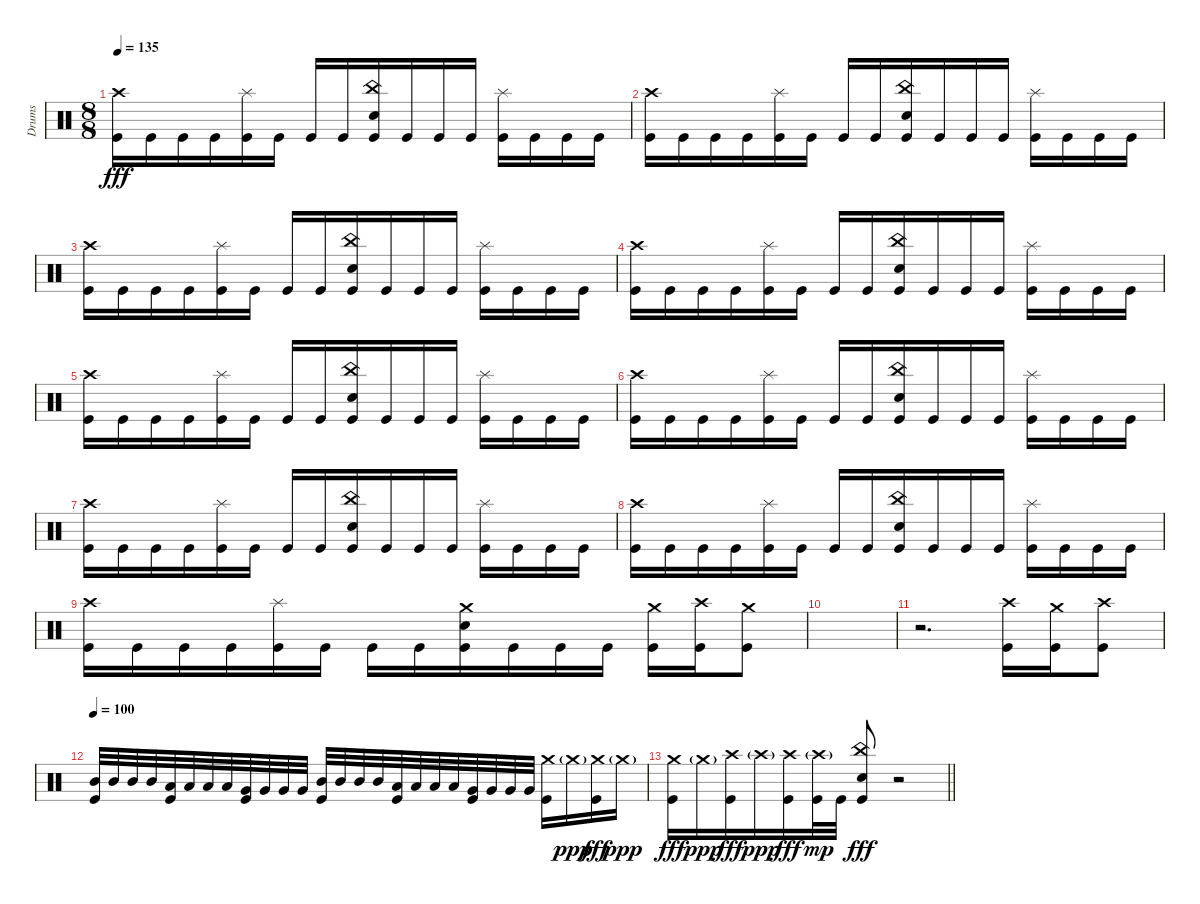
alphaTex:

\track ("Drums" "Drums") {instrument percussion}
\staff
\articulation defaults
\ts (8 8)
\tempo 135
\clef neutral
\ks c
("Crash high (hit)" "Kick (hit)").16{dy fff} "Kick (hit)".16 "Kick (hit)".16 "Kick (hit)".16 ("Splash (hit)" "Kick (hit)").16 "Kick (hit)".16 "Kick (hit)".16 "Kick (hit)".16 ("China (hit)" "Snare (hit) 2" "Kick (hit)").16 "Kick (hit)".16 "Kick (hit)".16 "Kick (hit)".16 ("Splash (hit)" "Kick (hit)").16 "Kick (hit)".16 "Kick (hit)".16 "Kick (hit)".16 |
("Crash high (hit)" "Kick (hit)").16 "Kick (hit)".16 "Kick (hit)".16 "Kick (hit)".16 ("Splash (hit)" "Kick (hit)").16 "Kick (hit)".16 "Kick (hit)".16 "Kick (hit)".16 ("China (hit)" "Snare (hit) 2" "Kick (hit)").16 "Kick (hit)".16 "Kick (hit)".16 "Kick (hit)".16 ("Splash (hit)" "Kick (hit)").16 "Kick (hit)".16 "Kick (hit)".16 "Kick (hit)".16 |
("Crash high (hit)" "Kick (hit)").16 "Kick (hit)".16 "Kick (hit)".16 "Kick (hit)".16 ("Splash (hit)" "Kick (hit)").16 "Kick (hit)".16 "Kick (hit)".16 "Kick (hit)".16 ("China (hit)" "Snare (hit) 2" "Kick (hit)").16 "Kick (hit)".16 "Kick (hit)".16 "Kick (hit)".16 ("Splash (hit)" "Kick (hit)").16 "Kick (hit)".16 "Kick (hit)".16 "Kick (hit)".16 |
("Crash high (hit)" "Kick (hit)").16 "Kick (hit)".16 "Kick (hit)".16 "Kick (hit)".16 ("Splash (hit)" "Kick (hit)").16 "Kick (hit)".16 "Kick (hit)".16 "Kick (hit)".16 ("China (hit)" "Snare (hit) 2" "Kick (hit)").16 "Kick (hit)".16 "Kick (hit)".16 "Kick (hit)".16 ("Splash (hit)" "Kick (hit)").16 "Kick (hit)".16 "Kick (hit)".16 "Kick (hit)".16 |
("Crash high (hit)" "Kick (hit)").16 "Kick (hit)".16 "Kick (hit)".16 "Kick (hit)".16 ("Splash (hit)" "Kick (hit)").16 "Kick (hit)".16 "Kick (hit)".16 "Kick (hit)".16 ("China (hit)" "Snare (hit) 2" "Kick (hit)").16 "Kick (hit)".16 "Kick (hit)".16 "Kick (hit)".16 ("Splash (hit)" "Kick (hit)").16 "Kick (hit)".16 "Kick (hit)".16 "Kick (hit)".16 |
("Crash high (hit)" "Kick (hit)").16 "Kick (hit)".16 "Kick (hit)".16 "Kick (hit)".16 ("Splash (hit)" "Kick (hit)").16 "Kick (hit)".16 "Kick (hit)".16 "Kick (hit)".16 ("China (hit)" "Snare (hit) 2" "Kick (hit)").16 "Kick (hit)".16 "Kick (hit)".16 "Kick (hit)".16 ("Splash (hit)" "Kick (hit)").16 "Kick (hit)".16 "Kick (hit)".16 "Kick (hit)".16 |
("Crash high (hit)" "Kick (hit)").16 "Kick (hit)".16 "Kick (hit)".16 "Kick (hit)".16 ("Splash (hit)" "Kick (hit)").16 "Kick (hit)".16 "Kick (hit)".16 "Kick (hit)".16 ("China (hit)" "Snare (hit) 2" "Kick (hit)").16 "Kick (hit)".16 "Kick (hit)".16 "Kick (hit)".16 ("Splash (hit)" "Kick (hit)").16 "Kick (hit)".16 "Kick (hit)".16 "Kick (hit)".16 |
("Crash high (hit)" "Kick (hit)").16 "Kick (hit)".16 "Kick (hit)".16 "Kick (hit)".16 ("Splash (hit)" "Kick (hit)").16 "Kick (hit)".16 "Kick (hit)".16 "Kick (hit)".16 ("China (hit)" "Snare (hit) 2" "Kick (hit)").16 "Kick (hit)".16 "Kick (hit)".16 "Kick (hit)".16 ("Splash (hit)" "Kick (hit)").16 "Kick (hit)".16 "Kick (hit)".16 "Kick (hit)".16 |
("Crash high (hit)" "Kick (hit)").16 "Kick (hit)".16 "Kick (hit)".16 "Kick (hit)".16 ("Splash (hit)" "Kick (hit)").16 "Kick (hit)".16 "Kick (hit)".16 "Kick (hit)".16 ("Crash medium (hit)" "Snare (hit) 2" "Kick (hit)").16 "Kick (hit)".16 "Kick (hit)".16 "Kick (hit)".16 ("Crash medium (hit)" "Kick (hit)").16 ("Crash high (hit)" "Kick (hit)").16 ("Crash medium (hit)" "Kick (hit)").8 |
|
r.2{d} ("Crash high (hit)" "Kick (hit)").16 ("Crash medium (hit)" "Kick (hit)").16 ("Crash high (hit)" "Kick (hit)").8 |
\tempo 100
("Mid Tom (hit)" "Kick (hit)").32 "Mid Tom (hit)".32 "Mid Tom (hit)".32 "Mid Tom (hit)".32 ("Low Tom (hit)" "Kick (hit)").32 "Low Tom (hit)".32 "Low Tom (hit)".32 "Low Tom (hit)".32 ("Very Low Tom (hit)" "Kick (hit)").32 "Very Low Tom (hit)".32 "Very Low Tom (hit)".32 "Very Low Tom (hit)".32 ("Mid Tom (hit)" "Kick (hit)").32 "Mid Tom (hit)".32 "Mid Tom (hit)".32 "Mid Tom (hit)".32 ("Low Tom (hit)" "Kick (hit)").32 "Low Tom (hit)".32 "Low Tom (hit)".32 "Low Tom (hit)".32 ("Very Low Tom (hit)" "Kick (hit)").32 "Very Low Tom (hit)".32 "Very Low Tom (hit)".32 "Very Low Tom (hit)".32 ("Crash medium (hit)" "Kick (hit)").16 "Crash medium (hit)"{g}.16{dy ppp} ("Crash medium (hit)" "Kick (hit)").16{dy fff} "Crash medium (hit)"{g}.16{dy ppp} |
\barLineRight lightlight
("Crash medium (hit)" "Kick (hit)").16{dy fff} "Crash medium (hit)"{g}.16{dy ppp} ("Crash high (hit)" "Kick (hit)").16{dy fff} "Crash high (hit)"{g}.16{dy ppp} ("Crash high (hit)" "Kick (hit)").16{dy fff} ("Crash high (hit)"{g} "Kick (hit)").32{dy mp} "Kick (hit)".32 ("China (hit)" "Snare (hit) 2" "Kick (hit)").8{dy fff} r.2
